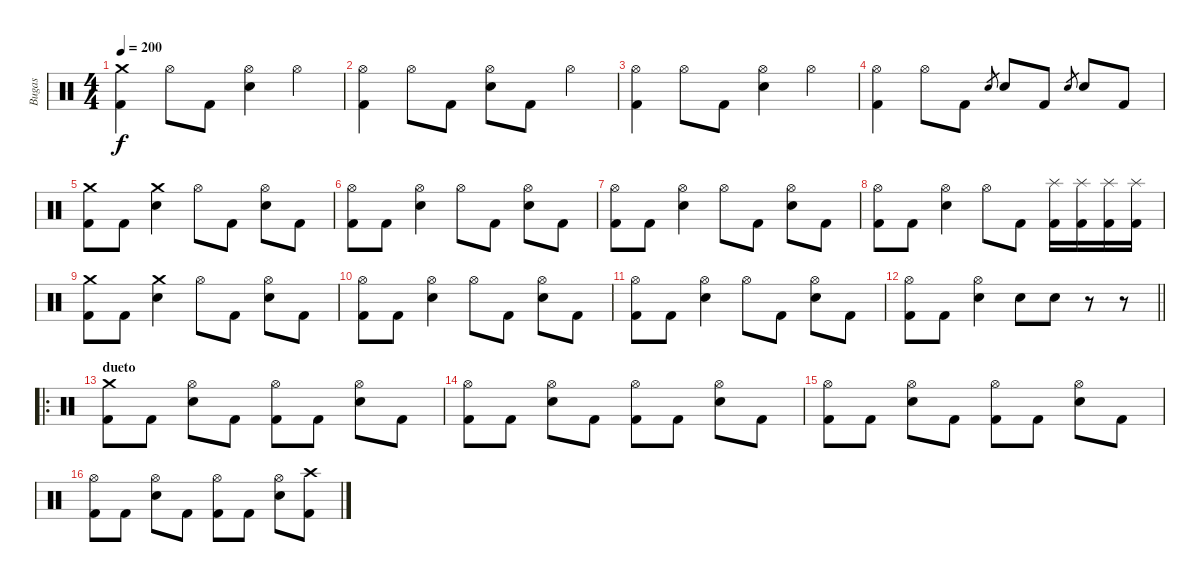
\track ("Bugas" "Bugas") {instrument percussion}
\staff {score}
\articulation defaults
\ts (4 4)
\tempo 200
\clef neutral
\ks c
("Crash medium (hit)" "Kick (hit) 2").4{dy f} "Hi-Hat (open)".8 "Kick (hit) 2".8 ("Hi-Hat (open)" "Electric Snare (hit)").4 "Hi-Hat (open)".4 |
("Hi-Hat (open)" "Kick (hit) 2").4 "Hi-Hat (open)".8 "Kick (hit) 2".8 ("Hi-Hat (open)" "Electric Snare (hit)").8 "Kick (hit) 2".8 "Hi-Hat (open)".4 |
("Hi-Hat (open)" "Kick (hit) 2").4 "Hi-Hat (open)".8 "Kick (hit) 2".8 ("Hi-Hat (open)" "Electric Snare (hit)").4 "Hi-Hat (open)".4 |
("Hi-Hat (open)" "Kick (hit) 2").4 "Hi-Hat (open)".8 "Kick (hit) 2".8 "Electric Snare (hit)".8{gr} "Electric Snare (hit)".8 "Kick (hit) 2".8 "Electric Snare (hit)".8{gr} "Electric Snare (hit)".8 "Kick (hit) 2".8 |
("Crash medium (hit)" "Kick (hit) 2").8 "Kick (hit) 2".8 ("Crash medium (hit)" "Electric Snare (hit)").4 "Hi-Hat (open)".8 "Kick (hit) 2".8 ("Hi-Hat (open)" "Electric Snare (hit)").8 "Kick (hit) 2".8 |
("Hi-Hat (open)" "Kick (hit) 2").8 "Kick (hit) 2".8 ("Hi-Hat (open)" "Electric Snare (hit)").4 "Hi-Hat (open)".8 "Kick (hit) 2".8 ("Hi-Hat (open)" "Electric Snare (hit)").8 "Kick (hit) 2".8 |
("Hi-Hat (open)" "Kick (hit) 2").8 "Kick (hit) 2".8 ("Hi-Hat (open)" "Electric Snare (hit)").4 "Hi-Hat (open)".8 "Kick (hit) 2".8 ("Hi-Hat (open)" "Electric Snare (hit)").8 "Kick (hit) 2".8 |
("Hi-Hat (open)" "Kick (hit) 2").8 "Kick (hit) 2".8 ("Hi-Hat (open)" "Electric Snare (hit)").4 "Hi-Hat (open)".8 "Kick (hit) 2".8 ("Splash (hit)" "Kick (hit) 2").16 ("Splash (hit)" "Kick (hit) 2").16 ("Splash (hit)" "Kick (hit) 2").16 ("Splash (hit)" "Kick (hit) 2").16 |
("Crash medium (hit)" "Kick (hit) 2").8 "Kick (hit) 2".8 ("Crash medium (hit)" "Electric Snare (hit)").4 "Hi-Hat (open)".8 "Kick (hit) 2".8 ("Hi-Hat (open)" "Electric Snare (hit)").8 "Kick (hit) 2".8 |
("Hi-Hat (open)" "Kick (hit) 2").8 "Kick (hit) 2".8 ("Hi-Hat (open)" "Electric Snare (hit)").4 "Hi-Hat (open)".8 "Kick (hit) 2".8 ("Hi-Hat (open)" "Electric Snare (hit)").8 "Kick (hit) 2".8 |
("Hi-Hat (open)" "Kick (hit) 2").8 "Kick (hit) 2".8 ("Hi-Hat (open)" "Electric Snare (hit)").4 "Hi-Hat (open)".8 "Kick (hit) 2".8 ("Hi-Hat (open)" "Electric Snare (hit)").8 "Kick (hit) 2".8 |
\barLineRight lightlight
("Hi-Hat (open)" "Kick (hit) 2").8 "Kick (hit) 2".8 ("Hi-Hat (open)" "Electric Snare (hit)").4 "Electric Snare (hit)".8 "Electric Snare (hit)".8 r.8 r.8 |
\ro
\section ("" "dueto")
("Crash medium (hit)" "Kick (hit) 2").8 "Kick (hit) 2".8 ("Hi-Hat (open)" "Electric Snare (hit)").8 "Kick (hit) 2".8 ("Hi-Hat (open)" "Kick (hit) 2").8 "Kick (hit) 2".8 ("Hi-Hat (open)" "Electric Snare (hit)").8 "Kick (hit) 2".8 |
("Hi-Hat (open)" "Kick (hit) 2").8 "Kick (hit) 2".8 ("Hi-Hat (open)" "Electric Snare (hit)").8 "Kick (hit) 2".8 ("Hi-Hat (open)" "Kick (hit) 2").8 "Kick (hit) 2".8 ("Hi-Hat (open)" "Electric Snare (hit)").8 "Kick (hit) 2".8 |
("Hi-Hat (open)" "Kick (hit) 2").8 "Kick (hit) 2".8 ("Hi-Hat (open)" "Electric Snare (hit)").8 "Kick (hit) 2".8 ("Hi-Hat (open)" "Kick (hit) 2").8 "Kick (hit) 2".8 ("Hi-Hat (open)" "Electric Snare (hit)").8 "Kick (hit) 2".8 |
("Hi-Hat (open)" "Kick (hit) 2").8 "Kick (hit) 2".8 ("Hi-Hat (open)" "Electric Snare (hit)").8 "Kick (hit) 2".8 ("Hi-Hat (open)" "Kick (hit) 2").8 "Kick (hit) 2".8 ("Hi-Hat (open)" "Electric Snare (hit)").8 ("Crash high (hit)" "Kick (hit) 2").8
